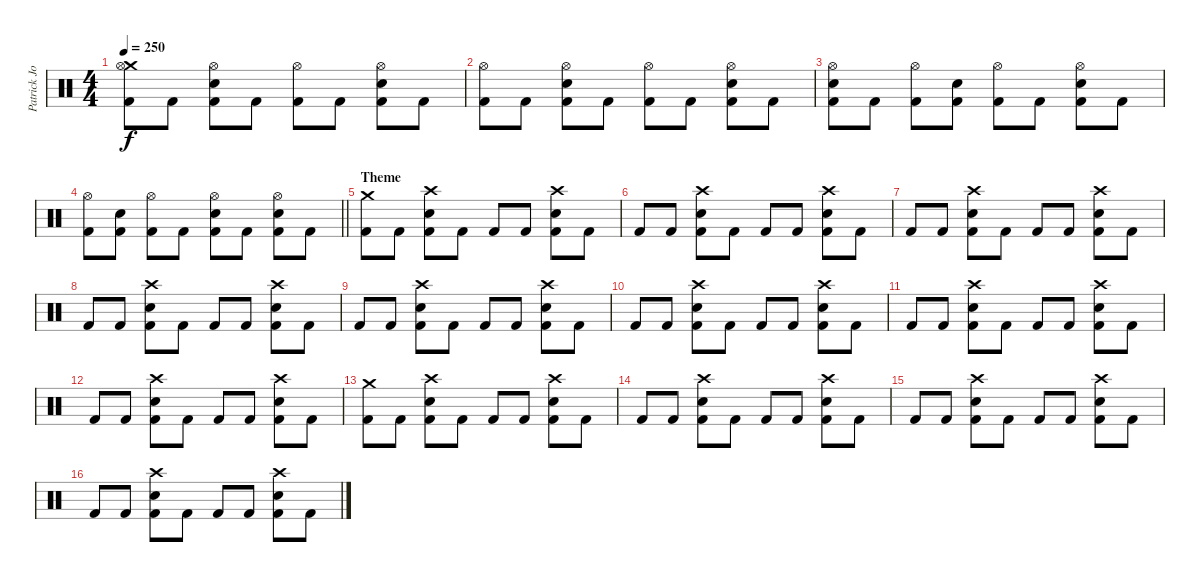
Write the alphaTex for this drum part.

\track ("Patrick Johansson" "Patrick Jo") {instrument percussion}
\staff {score}
\articulation defaults
\ts (4 4)
\tempo 250
\clef neutral
\ks c
("Crash medium (hit)" "Hi-Hat (open)" "Kick (hit) 2").8{dy f} "Kick (hit) 2".8 ("Hi-Hat (open)" "Snare (hit) 2" "Kick (hit) 2").8 "Kick (hit) 2".8 ("Hi-Hat (open)" "Kick (hit) 2").8 "Kick (hit) 2".8 ("Hi-Hat (open)" "Snare (hit) 2" "Kick (hit) 2").8 "Kick (hit) 2".8 |
("Hi-Hat (open)" "Kick (hit) 2").8 "Kick (hit) 2".8 ("Hi-Hat (open)" "Snare (hit) 2" "Kick (hit) 2").8 "Kick (hit) 2".8 ("Hi-Hat (open)" "Kick (hit) 2").8 "Kick (hit) 2".8 ("Hi-Hat (open)" "Snare (hit) 2" "Kick (hit) 2").8 "Kick (hit) 2".8 |
("Hi-Hat (open)" "Snare (hit) 2" "Kick (hit) 2").8 "Kick (hit) 2".8 ("Hi-Hat (open)" "Kick (hit) 2").8 ("Snare (hit) 2" "Kick (hit) 2").8 ("Hi-Hat (open)" "Kick (hit) 2").8 "Kick (hit) 2".8 ("Hi-Hat (open)" "Snare (hit) 2" "Kick (hit) 2").8 "Kick (hit) 2".8 |
\barLineRight lightlight
("Hi-Hat (open)" "Kick (hit) 2").8 ("Snare (hit) 2" "Kick (hit) 2").8 ("Hi-Hat (open)" "Kick (hit) 2").8 "Kick (hit) 2".8 ("Hi-Hat (open)" "Snare (hit) 2" "Kick (hit) 2").8 "Kick (hit) 2".8 ("Hi-Hat (open)" "Snare (hit) 2" "Kick (hit) 2").8 "Kick (hit) 2".8 |
\section ("" "Theme")
("Crash medium (hit)" "Kick (hit) 2").8 "Kick (hit) 2".8 ("Crash high (hit)" "Snare (hit) 2" "Kick (hit) 2").8 "Kick (hit) 2".8 "Kick (hit) 2".8 "Kick (hit) 2".8 ("Crash high (hit)" "Snare (hit) 2" "Kick (hit) 2").8 "Kick (hit) 2".8 |
"Kick (hit) 2".8 "Kick (hit) 2".8 ("Crash high (hit)" "Snare (hit) 2" "Kick (hit) 2").8 "Kick (hit) 2".8 "Kick (hit) 2".8 "Kick (hit) 2".8 ("Crash high (hit)" "Snare (hit) 2" "Kick (hit) 2").8 "Kick (hit) 2".8 |
"Kick (hit) 2".8 "Kick (hit) 2".8 ("Crash high (hit)" "Snare (hit) 2" "Kick (hit) 2").8 "Kick (hit) 2".8 "Kick (hit) 2".8 "Kick (hit) 2".8 ("Crash high (hit)" "Snare (hit) 2" "Kick (hit) 2").8 "Kick (hit) 2".8 |
"Kick (hit) 2".8 "Kick (hit) 2".8 ("Crash high (hit)" "Snare (hit) 2" "Kick (hit) 2").8 "Kick (hit) 2".8 "Kick (hit) 2".8 "Kick (hit) 2".8 ("Crash high (hit)" "Snare (hit) 2" "Kick (hit) 2").8 "Kick (hit) 2".8 |
"Kick (hit) 2".8 "Kick (hit) 2".8 ("Crash high (hit)" "Snare (hit) 2" "Kick (hit) 2").8 "Kick (hit) 2".8 "Kick (hit) 2".8 "Kick (hit) 2".8 ("Crash high (hit)" "Snare (hit) 2" "Kick (hit) 2").8 "Kick (hit) 2".8 |
"Kick (hit) 2".8 "Kick (hit) 2".8 ("Crash high (hit)" "Snare (hit) 2" "Kick (hit) 2").8 "Kick (hit) 2".8 "Kick (hit) 2".8 "Kick (hit) 2".8 ("Crash high (hit)" "Snare (hit) 2" "Kick (hit) 2").8 "Kick (hit) 2".8 |
"Kick (hit) 2".8 "Kick (hit) 2".8 ("Crash high (hit)" "Snare (hit) 2" "Kick (hit) 2").8 "Kick (hit) 2".8 "Kick (hit) 2".8 "Kick (hit) 2".8 ("Crash high (hit)" "Snare (hit) 2" "Kick (hit) 2").8 "Kick (hit) 2".8 |
"Kick (hit) 2".8 "Kick (hit) 2".8 ("Crash high (hit)" "Snare (hit) 2" "Kick (hit) 2").8 "Kick (hit) 2".8 "Kick (hit) 2".8 "Kick (hit) 2".8 ("Crash high (hit)" "Snare (hit) 2" "Kick (hit) 2").8 "Kick (hit) 2".8 |
("Crash medium (hit)" "Kick (hit) 2").8 "Kick (hit) 2".8 ("Crash high (hit)" "Snare (hit) 2" "Kick (hit) 2").8 "Kick (hit) 2".8 "Kick (hit) 2".8 "Kick (hit) 2".8 ("Crash high (hit)" "Snare (hit) 2" "Kick (hit) 2").8 "Kick (hit) 2".8 |
"Kick (hit) 2".8 "Kick (hit) 2".8 ("Crash high (hit)" "Snare (hit) 2" "Kick (hit) 2").8 "Kick (hit) 2".8 "Kick (hit) 2".8 "Kick (hit) 2".8 ("Crash high (hit)" "Snare (hit) 2" "Kick (hit) 2").8 "Kick (hit) 2".8 |
"Kick (hit) 2".8 "Kick (hit) 2".8 ("Crash high (hit)" "Snare (hit) 2" "Kick (hit) 2").8 "Kick (hit) 2".8 "Kick (hit) 2".8 "Kick (hit) 2".8 ("Crash high (hit)" "Snare (hit) 2" "Kick (hit) 2").8 "Kick (hit) 2".8 |
"Kick (hit) 2".8 "Kick (hit) 2".8 ("Crash high (hit)" "Snare (hit) 2" "Kick (hit) 2").8 "Kick (hit) 2".8 "Kick (hit) 2".8 "Kick (hit) 2".8 ("Crash high (hit)" "Snare (hit) 2" "Kick (hit) 2").8 "Kick (hit) 2".8
